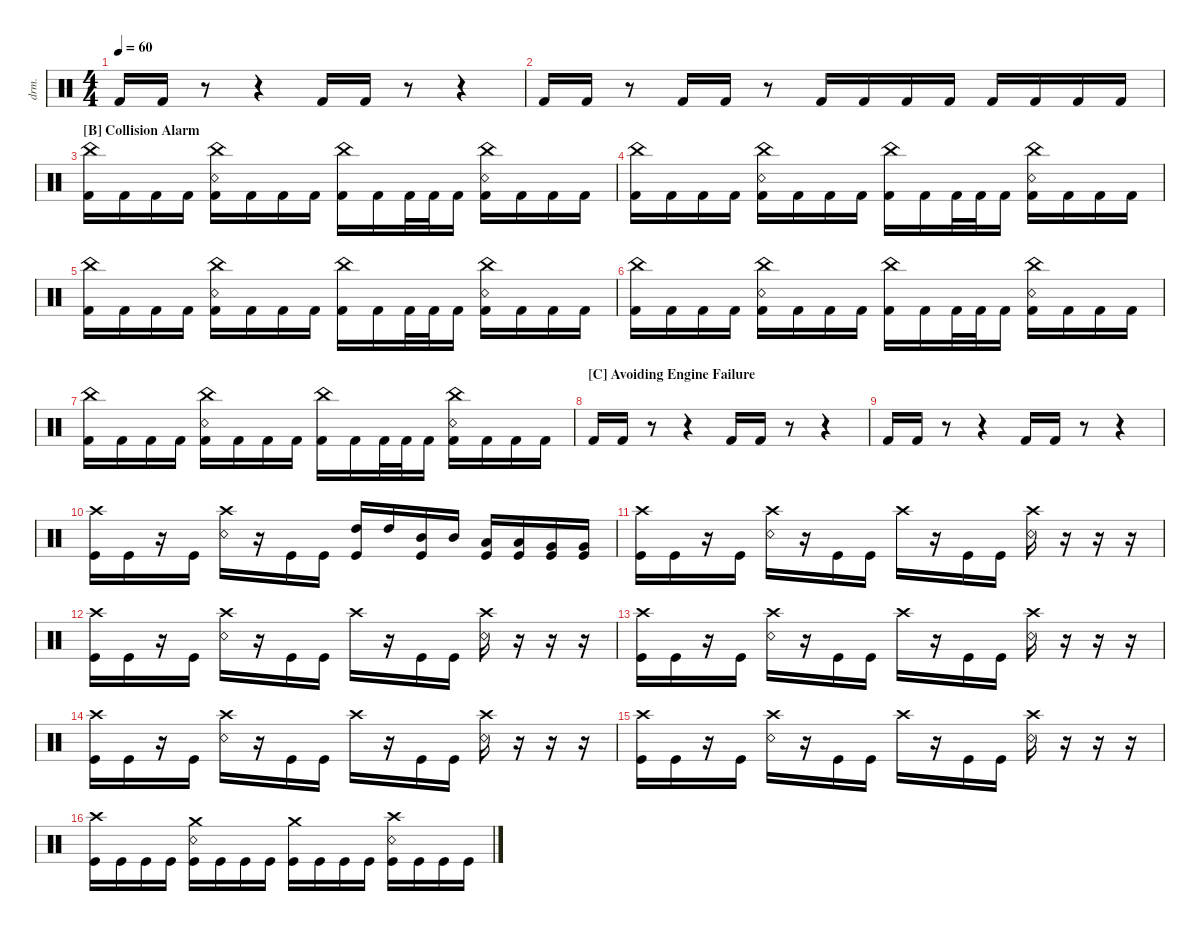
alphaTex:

\defaultSystemsLayout 4
\hideDynamics
\bracketExtendMode nobrackets
\otherSystemsTrackNameOrientation horizontal
\track ("Drumkit" "drm.") {instrument percussion}
\staff {score}
\articulation defaults
\ts (4 4)
\tempo 60
\clef neutral
\ks c "Kick (hit) 2".16{dy mf beam Up} "Kick (hit) 2".16{beam Up}
r.8{beam Up} r.4{beam Up} "Kick (hit) 2".16{beam Up} "Kick (hit) 2".16{beam Up} r.8{beam Up} r.4{beam Up} |
"Kick (hit) 2".16{beam Up} "Kick (hit) 2".16{beam Up} r.8{beam Up} "Kick (hit) 2".16{beam Up} "Kick (hit) 2".16{beam Up} r.8{beam Up} "Kick (hit) 2".16{beam Up} "Kick (hit) 2".16{beam Up} "Kick (hit) 2".16{beam Up} "Kick (hit) 2".16{beam Up} "Kick (hit) 2".16{beam Up} "Kick (hit) 2".16{beam Up} "Kick (hit) 2".16{beam Up} "Kick (hit) 2".16{beam Up} |
\section ("B" "Collision Alarm")
("Kick (hit) 2" "China (hit)").16{beam Down} "Kick (hit) 2".16{beam Down} "Kick (hit) 2".16{beam Down} "Kick (hit) 2".16{beam Down} ("Kick (hit) 2" "China (hit)" "Snare (rim shot)").16{beam Down} "Kick (hit) 2".16{beam Down} "Kick (hit) 2".16{beam Down} "Kick (hit) 2".16{beam Down} ("Kick (hit) 2" "China (hit)").16{beam Down} "Kick (hit) 2".16{beam Down} "Kick (hit) 2".32{beam Down} "Kick (hit) 2".32{beam Down} "Kick (hit) 2".16{beam Down} ("Kick (hit) 2" "China (hit)" "Snare (rim shot)").16{beam Down} "Kick (hit) 2".16{beam Down} "Kick (hit) 2".16{beam Down} "Kick (hit) 2".16{beam Down} |
("Kick (hit) 2" "China (hit)").16{beam Down} "Kick (hit) 2".16{beam Down} "Kick (hit) 2".16{beam Down} "Kick (hit) 2".16{beam Down} ("Kick (hit) 2" "China (hit)" "Snare (rim shot)").16{beam Down} "Kick (hit) 2".16{beam Down} "Kick (hit) 2".16{beam Down} "Kick (hit) 2".16{beam Down} ("Kick (hit) 2" "China (hit)").16{beam Down} "Kick (hit) 2".16{beam Down} "Kick (hit) 2".32{beam Down} "Kick (hit) 2".32{beam Down} "Kick (hit) 2".16{beam Down} ("Kick (hit) 2" "China (hit)" "Snare (rim shot)").16{beam Down} "Kick (hit) 2".16{beam Down} "Kick (hit) 2".16{beam Down} "Kick (hit) 2".16{beam Down} |
("Kick (hit) 2" "China (hit)").16{beam Down} "Kick (hit) 2".16{beam Down} "Kick (hit) 2".16{beam Down} "Kick (hit) 2".16{beam Down} ("Kick (hit) 2" "China (hit)" "Snare (rim shot)").16{beam Down} "Kick (hit) 2".16{beam Down} "Kick (hit) 2".16{beam Down} "Kick (hit) 2".16{beam Down} ("Kick (hit) 2" "China (hit)").16{beam Down} "Kick (hit) 2".16{beam Down} "Kick (hit) 2".32{beam Down} "Kick (hit) 2".32{beam Down} "Kick (hit) 2".16{beam Down} ("Kick (hit) 2" "China (hit)" "Snare (rim shot)").16{beam Down} "Kick (hit) 2".16{beam Down} "Kick (hit) 2".16{beam Down} "Kick (hit) 2".16{beam Down} |
("Kick (hit) 2" "China (hit)").16{beam Down} "Kick (hit) 2".16{beam Down} "Kick (hit) 2".16{beam Down} "Kick (hit) 2".16{beam Down} ("Kick (hit) 2" "China (hit)" "Snare (rim shot)").16{beam Down} "Kick (hit) 2".16{beam Down} "Kick (hit) 2".16{beam Down} "Kick (hit) 2".16{beam Down} ("Kick (hit) 2" "China (hit)").16{beam Down} "Kick (hit) 2".16{beam Down} "Kick (hit) 2".32{beam Down} "Kick (hit) 2".32{beam Down} "Kick (hit) 2".16{beam Down} ("Kick (hit) 2" "China (hit)" "Snare (rim shot)").16{beam Down} "Kick (hit) 2".16{beam Down} "Kick (hit) 2".16{beam Down} "Kick (hit) 2".16{beam Down} |
("Kick (hit) 2" "China (hit)").16{beam Down} "Kick (hit) 2".16{beam Down} "Kick (hit) 2".16{beam Down} "Kick (hit) 2".16{beam Down} ("Kick (hit) 2" "China (hit)" "Snare (rim shot)").16{beam Down} "Kick (hit) 2".16{beam Down} "Kick (hit) 2".16{beam Down} "Kick (hit) 2".16{beam Down} ("Kick (hit) 2" "China (hit)").16{beam Down} "Kick (hit) 2".16{beam Down} "Kick (hit) 2".32{beam Down} "Kick (hit) 2".32{beam Down} "Kick (hit) 2".16{beam Down} ("Kick (hit) 2" "China (hit)" "Snare (rim shot)").16{beam Down} "Kick (hit) 2".16{beam Down} "Kick (hit) 2".16{beam Down} "Kick (hit) 2".16{beam Down} |
\section ("C" "Avoiding Engine Failure")
"Kick (hit) 2".16{beam Up} "Kick (hit) 2".16{beam Up} r.8{beam Up} r.4{beam Up} "Kick (hit) 2".16{beam Up} "Kick (hit) 2".16{beam Up} r.8{beam Up} r.4{beam Up} |
"Kick (hit) 2".16{beam Up} "Kick (hit) 2".16{beam Up} r.8{beam Up} r.4{beam Up} "Kick (hit) 2".16{beam Up} "Kick (hit) 2".16{beam Up} r.8{beam Up} r.4{beam Up} |
("Crash high (hit)" "Kick (hit)").16{beam Down} "Kick (hit)".16{beam Down} r.16{beam Down} "Kick (hit)".16{beam Down} ("Snare (rim shot)" "Crash high (hit)").16{beam Down} r.16{beam Down} "Kick (hit)".16{beam Down} "Kick (hit)".16{beam Down} ("High Tom (hit)" "Kick (hit)").16{dy fff beam Up} "High Tom (hit)".16{beam Up} ("Mid Tom (hit)" "Kick (hit)").16{beam Up} "Mid Tom (hit)".16{beam Up} ("Low Tom (hit)" "Kick (hit)").16{beam Up} ("Low Tom (hit)" "Kick (hit)").16{beam Up} ("Very Low Tom (hit)" "Kick (hit)").16{beam Up} ("Very Low Tom (hit)" "Kick (hit)").16{beam Up} |
("Crash high (hit)" "Kick (hit)").16{dy mf beam Down} "Kick (hit)".16{beam Down} r.16{beam Down} "Kick (hit)".16{beam Down} ("Snare (rim shot)" "Crash high (hit)").16{beam Down} r.16{beam Down} "Kick (hit)".16{beam Down} "Kick (hit)".16{beam Down} "Crash high (hit)".16{beam Down} r.16{beam Down} "Kick (hit)".16{beam Down} "Kick (hit)".16{beam Down} ("Snare (rim shot)" "Crash high (hit)").16{beam Down} r.16{beam Down} r.16{beam Down} r.16{beam Down} |
("Crash high (hit)" "Kick (hit)").16{beam Down} "Kick (hit)".16{beam Down} r.16{beam Down} "Kick (hit)".16{beam Down} ("Snare (rim shot)" "Crash high (hit)").16{beam Down} r.16{beam Down} "Kick (hit)".16{beam Down} "Kick (hit)".16{beam Down} "Crash high (hit)".16{beam Down} r.16{beam Down} "Kick (hit)".16{beam Down} "Kick (hit)".16{beam Down} ("Snare (rim shot)" "Crash high (hit)").16{beam Down} r.16{beam Down} r.16{beam Down} r.16{beam Down} |
("Crash high (hit)" "Kick (hit)").16{beam Down} "Kick (hit)".16{beam Down} r.16{beam Down} "Kick (hit)".16{beam Down} ("Snare (rim shot)" "Crash high (hit)").16{beam Down} r.16{beam Down} "Kick (hit)".16{beam Down} "Kick (hit)".16{beam Down} "Crash high (hit)".16{beam Down} r.16{beam Down} "Kick (hit)".16{beam Down} "Kick (hit)".16{beam Down} ("Snare (rim shot)" "Crash high (hit)").16{beam Down} r.16{beam Down} r.16{beam Down} r.16{beam Down} |
("Crash high (hit)" "Kick (hit)").16{beam Down} "Kick (hit)".16{beam Down} r.16{beam Down} "Kick (hit)".16{beam Down} ("Snare (rim shot)" "Crash high (hit)").16{beam Down} r.16{beam Down} "Kick (hit)".16{beam Down} "Kick (hit)".16{beam Down} "Crash high (hit)".16{beam Down} r.16{beam Down} "Kick (hit)".16{beam Down} "Kick (hit)".16{beam Down} ("Snare (rim shot)" "Crash high (hit)").16{beam Down} r.16{beam Down} r.16{beam Down} r.16{beam Down} |
("Crash high (hit)" "Kick (hit)").16{beam Down} "Kick (hit)".16{beam Down} r.16{beam Down} "Kick (hit)".16{beam Down} ("Snare (rim shot)" "Crash high (hit)").16{beam Down} r.16{beam Down} "Kick (hit)".16{beam Down} "Kick (hit)".16{beam Down} "Crash high (hit)".16{beam Down} r.16{beam Down} "Kick (hit)".16{beam Down} "Kick (hit)".16{beam Down} ("Snare (rim shot)" "Crash high (hit)").16{beam Down} r.16{beam Down} r.16{beam Down} r.16{beam Down} |
("Crash high (hit)" "Kick (hit)").16{dy fff beam Down} "Kick (hit)".16{beam Down} "Kick (hit)".16{beam Down} "Kick (hit)".16{beam Down} ("Crash medium (hit)" "Kick (hit)" "Snare (rim shot)").16{beam Down} "Kick (hit)".16{beam Down} "Kick (hit)".16{beam Down} "Kick (hit)".16{beam Down} ("Kick (hit)" "Crash medium (hit)").16{beam Down} "Kick (hit)".16{beam Down} "Kick (hit)".16{beam Down} "Kick (hit)".16{beam Down} ("Kick (hit)" "Crash high (hit)" "Snare (rim shot)").16{beam Down} "Kick (hit)".16{beam Down} "Kick (hit)".16{beam Down} "Kick (hit)".16{beam Down}
